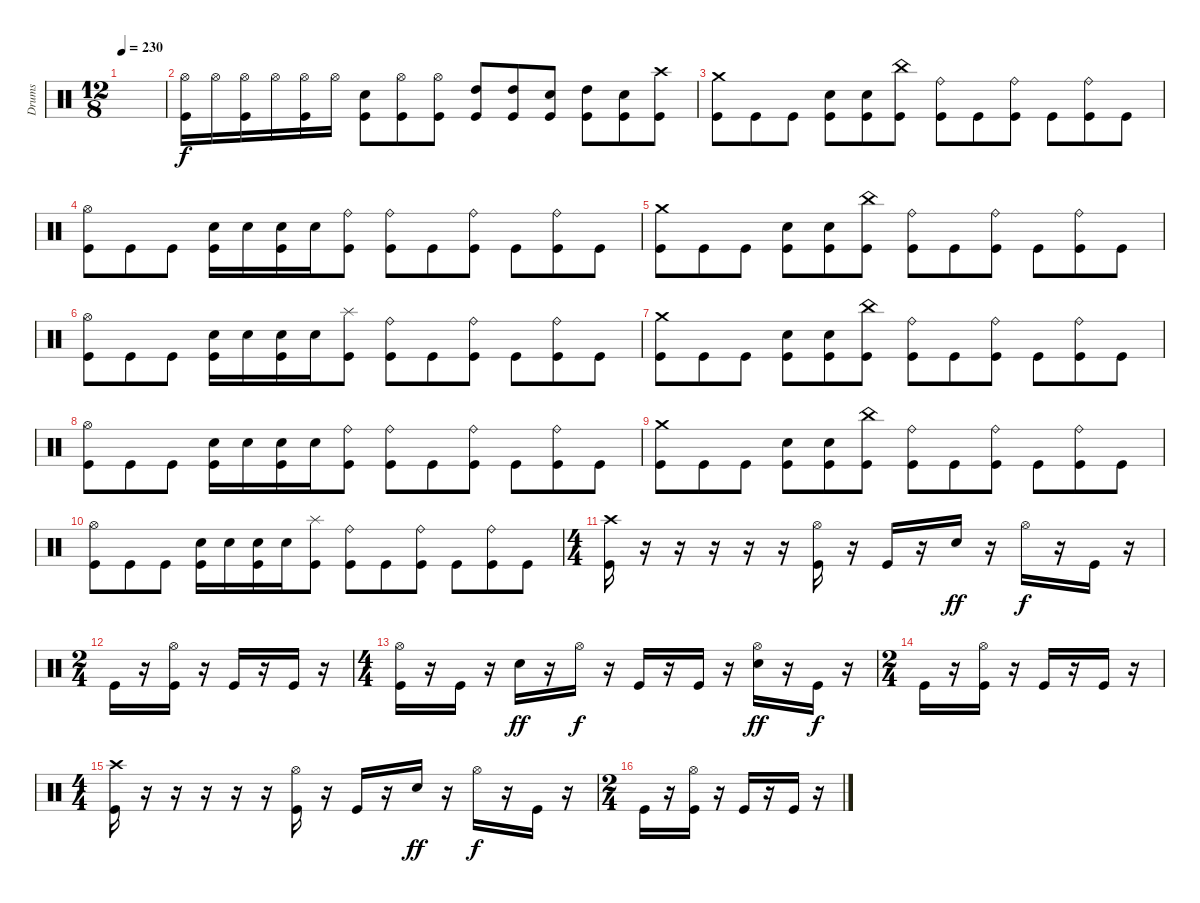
\track ("Drums" "Drums") {instrument percussion}
\staff {score}
\articulation defaults
\ts (12 8)
\tempo 230
\clef neutral
\ks c
|
("Kick (hit)" "Hi-Hat (open)").16 "Hi-Hat (open)".16 ("Kick (hit)" "Hi-Hat (open)").16 "Hi-Hat (open)".16 ("Kick (hit)" "Hi-Hat (open)").16 "Hi-Hat (open)".16 ("Kick (hit)" "Snare (hit) 2").8 ("Kick (hit)" "Hi-Hat (open)").8 ("Kick (hit)" "Hi-Hat (open)").8 ("Kick (hit)" "High Tom (hit)").8 ("Kick (hit)" "High Tom (hit)").8 ("Kick (hit)" "Snare (hit) 2").8 ("Kick (hit)" "High Tom (hit)").8 ("Kick (hit)" "Snare (hit) 2").8 ("Kick (hit)" "Crash high (hit)").8 |
("Kick (hit)" "Crash medium (hit)").8 "Kick (hit)".8 "Kick (hit)".8 ("Kick (hit)" "Snare (hit) 2").8 ("Kick (hit)" "Snare (hit) 2").8 ("Kick (hit)" "China (hit)").8 ("Kick (hit)" "Ride (bell)").8 "Kick (hit)".8 ("Kick (hit)" "Ride (bell)").8 "Kick (hit)".8 ("Kick (hit)" "Ride (bell)").8 "Kick (hit)".8 |
("Kick (hit)" "Hi-Hat (open)").8 "Kick (hit)".8 "Kick (hit)".8 ("Kick (hit)" "Snare (hit) 2").16 "Snare (hit) 2".16 ("Kick (hit)" "Snare (hit) 2").16 "Snare (hit) 2".16 ("Kick (hit)" "Ride (bell)").8 ("Kick (hit)" "Ride (bell)").8 "Kick (hit)".8 ("Kick (hit)" "Ride (bell)").8 "Kick (hit)".8 ("Kick (hit)" "Ride (bell)").8 "Kick (hit)".8 |
("Kick (hit)" "Crash medium (hit)").8 "Kick (hit)".8 "Kick (hit)".8 ("Kick (hit)" "Snare (hit) 2").8 ("Kick (hit)" "Snare (hit) 2").8 ("Kick (hit)" "China (hit)").8 ("Kick (hit)" "Ride (bell)").8 "Kick (hit)".8 ("Kick (hit)" "Ride (bell)").8 "Kick (hit)".8 ("Kick (hit)" "Ride (bell)").8 "Kick (hit)".8 |
("Kick (hit)" "Hi-Hat (open)").8 "Kick (hit)".8 "Kick (hit)".8 ("Kick (hit)" "Snare (hit) 2").16 "Snare (hit) 2".16 ("Kick (hit)" "Snare (hit) 2").16 "Snare (hit) 2".16 ("Kick (hit)" "Splash (hit)").8 ("Kick (hit)" "Ride (bell)").8 "Kick (hit)".8 ("Kick (hit)" "Ride (bell)").8 "Kick (hit)".8 ("Kick (hit)" "Ride (bell)").8 "Kick (hit)".8 |
("Kick (hit)" "Crash medium (hit)").8 "Kick (hit)".8 "Kick (hit)".8 ("Kick (hit)" "Snare (hit) 2").8 ("Kick (hit)" "Snare (hit) 2").8 ("Kick (hit)" "China (hit)").8 ("Kick (hit)" "Ride (bell)").8 "Kick (hit)".8 ("Kick (hit)" "Ride (bell)").8 "Kick (hit)".8 ("Kick (hit)" "Ride (bell)").8 "Kick (hit)".8 |
("Kick (hit)" "Hi-Hat (open)").8 "Kick (hit)".8 "Kick (hit)".8 ("Kick (hit)" "Snare (hit) 2").16 "Snare (hit) 2".16 ("Kick (hit)" "Snare (hit) 2").16 "Snare (hit) 2".16 ("Kick (hit)" "Ride (bell)").8 ("Kick (hit)" "Ride (bell)").8 "Kick (hit)".8 ("Kick (hit)" "Ride (bell)").8 "Kick (hit)".8 ("Kick (hit)" "Ride (bell)").8 "Kick (hit)".8 |
("Kick (hit)" "Crash medium (hit)").8 "Kick (hit)".8 "Kick (hit)".8 ("Kick (hit)" "Snare (hit) 2").8 ("Kick (hit)" "Snare (hit) 2").8 ("Kick (hit)" "China (hit)").8 ("Kick (hit)" "Ride (bell)").8 "Kick (hit)".8 ("Kick (hit)" "Ride (bell)").8 "Kick (hit)".8 ("Kick (hit)" "Ride (bell)").8 "Kick (hit)".8 |
("Kick (hit)" "Hi-Hat (open)").8 "Kick (hit)".8 "Kick (hit)".8 ("Kick (hit)" "Snare (hit) 2").16 "Snare (hit) 2".16 ("Kick (hit)" "Snare (hit) 2").16 "Snare (hit) 2".16 ("Kick (hit)" "Splash (hit)").8 ("Kick (hit)" "Ride (bell)").8 "Kick (hit)".8 ("Kick (hit)" "Ride (bell)").8 "Kick (hit)".8 ("Kick (hit)" "Ride (bell)").8 "Kick (hit)".8 |
\ts (4 4)
("Kick (hit)" "Crash high (hit)").16 r.16 r.16 r.16 r.16 r.16 ("Kick (hit)" "Hi-Hat (open)").16 r.16 "Kick (hit)".16 r.16 "Snare (hit) 2".16{dy ff} r.16 "Hi-Hat (open)".16{dy f} r.16 "Kick (hit)".16 r.16 |
\ts (2 4)
"Kick (hit)".16 r.16 ("Kick (hit)" "Hi-Hat (open)").16 r.16 "Kick (hit)".16 r.16 "Kick (hit)".16 r.16 |
\ts (4 4)
("Kick (hit)" "Hi-Hat (open)").16 r.16 "Kick (hit)".16 r.16 "Snare (hit) 2".16{dy ff} r.16 "Hi-Hat (open)".16{dy f} r.16 "Kick (hit)".16 r.16 "Kick (hit)".16 r.16 ("Snare (hit) 2" "Hi-Hat (open)").16{dy ff} r.16 "Kick (hit)".16{dy f} r.16 |
\ts (2 4)
"Kick (hit)".16 r.16 ("Kick (hit)" "Hi-Hat (open)").16 r.16 "Kick (hit)".16 r.16 "Kick (hit)".16 r.16 |
\ts (4 4)
("Kick (hit)" "Crash high (hit)").16 r.16 r.16 r.16 r.16 r.16 ("Kick (hit)" "Hi-Hat (open)").16 r.16 "Kick (hit)".16 r.16 "Snare (hit) 2".16{dy ff} r.16 "Hi-Hat (open)".16{dy f} r.16 "Kick (hit)".16 r.16 |
\ts (2 4)
"Kick (hit)".16 r.16 ("Kick (hit)" "Hi-Hat (open)").16 r.16 "Kick (hit)".16 r.16 "Kick (hit)".16 r.16
